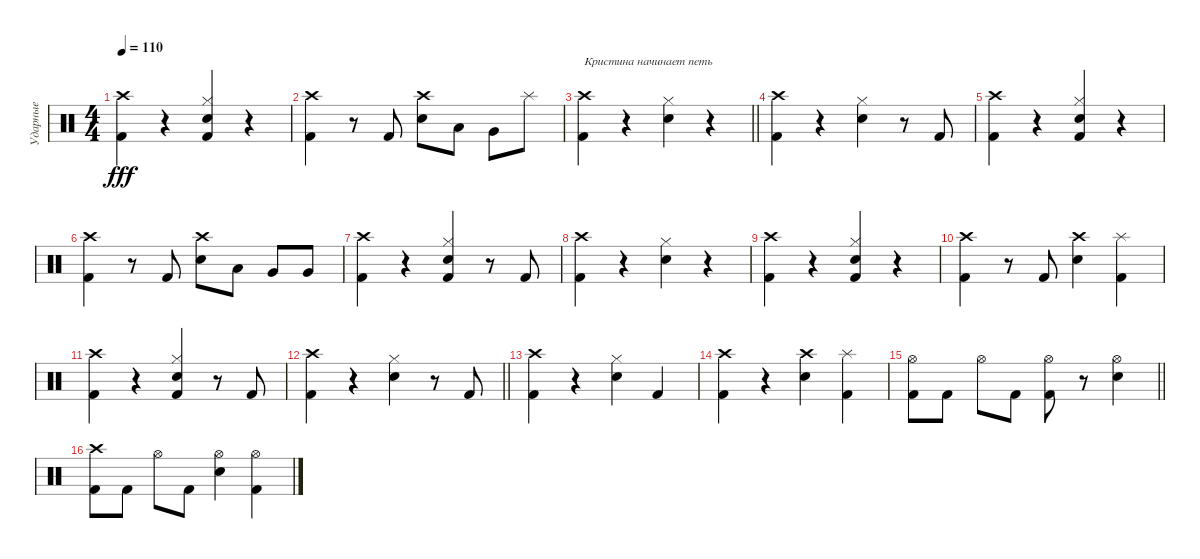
\track ("Ударные" "Ударные") {mute instrument percussion}
\staff {score}
\articulation defaults
\ts (4 4)
\tempo 110
\clef neutral
\ks c
("Crash high (hit)" "Kick (hit) 2").4{dy fff} r.4 ("Hi-Hat (closed)" "Snare (hit) 2" "Kick (hit) 2").4 r.4 |
("Crash high (hit)" "Kick (hit) 2").4 r.8 "Kick (hit) 2".8 ("Crash high (hit)" "Snare (hit) 2").8 "Low Tom (hit)".8 "Very Low Tom (hit)".8 "Splash (hit)".8 |
\barLineRight lightlight
("Crash high (hit)" "Kick (hit) 2").4{txt "Кристина начинает петь"} r.4 ("Hi-Hat (closed)" "Snare (hit) 2").4 r.4 |
("Crash high (hit)" "Kick (hit) 2").4 r.4 ("Hi-Hat (closed)" "Snare (hit) 2").4 r.8 "Kick (hit) 2".8 |
("Crash high (hit)" "Kick (hit) 2").4 r.4 ("Hi-Hat (closed)" "Snare (hit) 2" "Kick (hit) 2").4 r.4 |
("Crash high (hit)" "Kick (hit) 2").4 r.8 "Kick (hit) 2".8 ("Crash high (hit)" "Snare (hit) 2").8 "Low Tom (hit)".8 "Very Low Tom (hit)".8 "Very Low Tom (hit)".8 |
("Crash high (hit)" "Kick (hit) 2").4 r.4 ("Hi-Hat (closed)" "Snare (hit) 2" "Kick (hit) 2").4 r.8 "Kick (hit) 2".8 |
("Crash high (hit)" "Kick (hit) 2").4 r.4 ("Hi-Hat (closed)" "Snare (hit) 2").4 r.4 |
("Crash high (hit)" "Kick (hit) 2").4 r.4 ("Hi-Hat (closed)" "Snare (hit) 2" "Kick (hit) 2").4 r.4 |
("Crash high (hit)" "Kick (hit) 2").4 r.8 "Kick (hit) 2".8 ("Crash high (hit)" "Snare (hit) 2").4 ("Splash (hit)" "Kick (hit) 2").4 |
("Crash high (hit)" "Kick (hit) 2").4 r.4 ("Hi-Hat (closed)" "Snare (hit) 2" "Kick (hit) 2").4 r.8 "Kick (hit) 2".8 |
\barLineRight lightlight
("Crash high (hit)" "Kick (hit) 2").4 r.4 ("Hi-Hat (closed)" "Snare (hit) 2").4 r.8 "Kick (hit) 2".8 |
("Crash high (hit)" "Kick (hit) 2").4 r.4 ("Hi-Hat (closed)" "Snare (hit) 2").4 "Kick (hit) 2".4 |
("Crash high (hit)" "Kick (hit) 2").4 r.4 ("Crash high (hit)" "Snare (hit) 2").4 ("Splash (hit)" "Kick (hit) 2").4 |
\barLineRight lightlight
("Hi-Hat (open)" "Kick (hit) 2").8 "Kick (hit) 2".8 "Hi-Hat (open)".8 "Kick (hit) 2".8 ("Hi-Hat (open)" "Kick (hit) 2").8 r.8 ("Hi-Hat (open)" "Snare (hit) 2").4 |
("Crash high (hit)" "Kick (hit) 2").8 "Kick (hit) 2".8 "Hi-Hat (open)".8 "Kick (hit) 2".8 ("Hi-Hat (open)" "Snare (hit) 2").4 ("Hi-Hat (open)" "Kick (hit) 2").4
